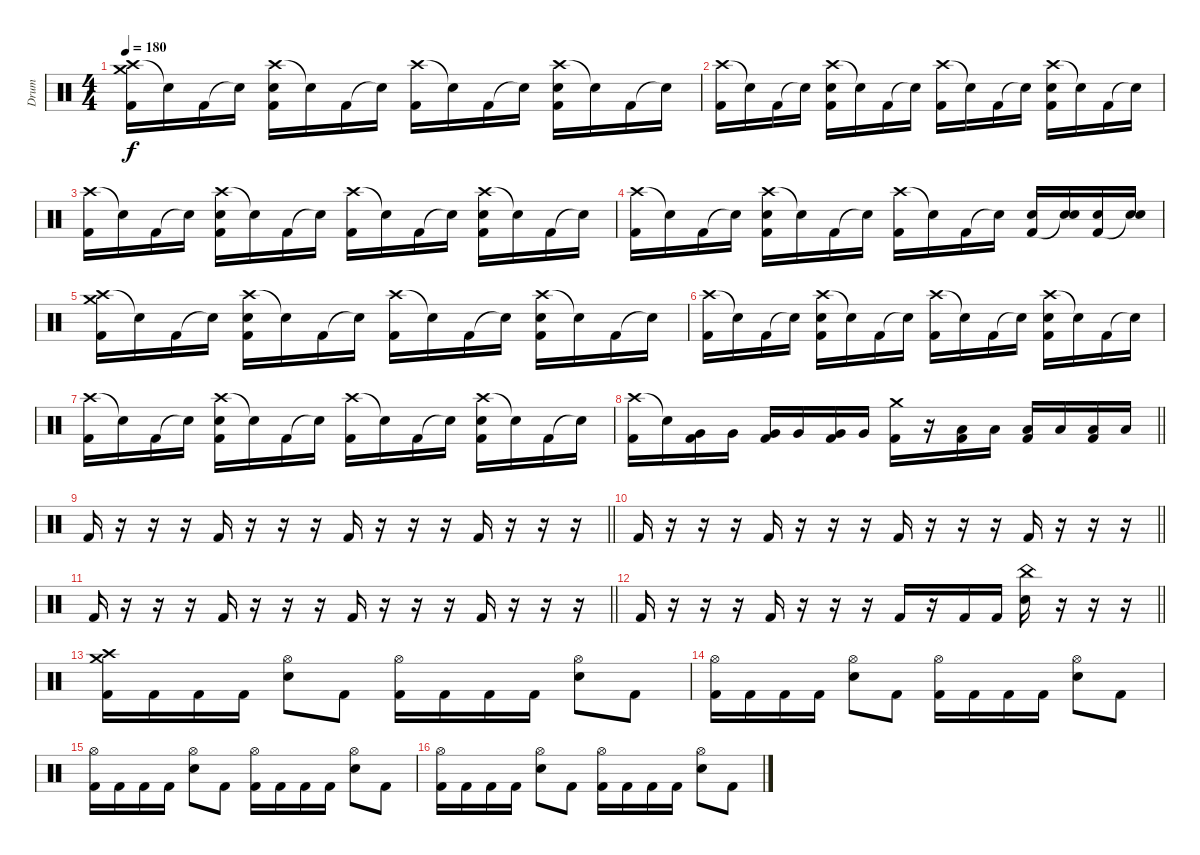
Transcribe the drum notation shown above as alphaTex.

\track ("Drum" "Drum") {instrument percussion}
\staff {score}
\articulation defaults
\ts (4 4)
\tempo 180
\clef neutral
\ks c
("Crash high (hit)" "Crash medium (hit)" "Kick (hit) 2").16{dy f} "Snare (hit)"{t}.16 "Kick (hit) 2".16 "Snare (hit)"{t}.16 ("Crash high (hit)" "Snare (hit) 2" "Kick (hit) 2").16 "Snare (hit)"{t}.16 "Kick (hit) 2".16 "Snare (hit)"{t}.16 ("Crash high (hit)" "Kick (hit) 2").16 "Snare (hit)"{t}.16 "Kick (hit) 2".16 "Snare (hit)"{t}.16 ("Crash high (hit)" "Snare (hit) 2" "Kick (hit) 2").16 "Snare (hit)"{t}.16 "Kick (hit) 2".16 "Snare (hit)"{t}.16 |
("Crash high (hit)" "Kick (hit) 2").16 "Snare (hit)"{t}.16 "Kick (hit) 2".16 "Snare (hit)"{t}.16 ("Crash high (hit)" "Snare (hit) 2" "Kick (hit) 2").16 "Snare (hit)"{t}.16 "Kick (hit) 2".16 "Snare (hit)"{t}.16 ("Crash high (hit)" "Kick (hit) 2").16 "Snare (hit)"{t}.16 "Kick (hit) 2".16 "Snare (hit)"{t}.16 ("Crash high (hit)" "Snare (hit) 2" "Kick (hit) 2").16 "Snare (hit)"{t}.16 "Kick (hit) 2".16 "Snare (hit)"{t}.16 |
("Crash high (hit)" "Kick (hit) 2").16 "Snare (hit)"{t}.16 "Kick (hit) 2".16 "Snare (hit)"{t}.16 ("Crash high (hit)" "Snare (hit) 2" "Kick (hit) 2").16 "Snare (hit)"{t}.16 "Kick (hit) 2".16 "Snare (hit)"{t}.16 ("Crash high (hit)" "Kick (hit) 2").16 "Snare (hit)"{t}.16 "Kick (hit) 2".16 "Snare (hit)"{t}.16 ("Crash high (hit)" "Snare (hit) 2" "Kick (hit) 2").16 "Snare (hit)"{t}.16 "Kick (hit) 2".16 "Snare (hit)"{t}.16 |
("Crash high (hit)" "Kick (hit) 2").16 "Snare (hit)"{t}.16 "Kick (hit) 2".16 "Snare (hit)"{t}.16 ("Crash high (hit)" "Snare (hit) 2" "Kick (hit) 2").16 "Snare (hit)"{t}.16 "Kick (hit) 2".16 "Snare (hit)"{t}.16 ("Crash high (hit)" "Kick (hit) 2").16 "Snare (hit)"{t}.16 "Kick (hit) 2".16 "Snare (hit)"{t}.16 ("Snare (hit) 2" "Kick (hit) 2").16 ("Snare (hit) 2" "Snare (hit)"{t}).16 ("Snare (hit) 2" "Kick (hit) 2").16 ("Snare (hit) 2" "Snare (hit)"{t}).16 |
("Crash high (hit)" "Crash medium (hit)" "Kick (hit) 2").16 "Snare (hit)"{t}.16 "Kick (hit) 2".16 "Snare (hit)"{t}.16 ("Crash high (hit)" "Snare (hit) 2" "Kick (hit) 2").16 "Snare (hit)"{t}.16 "Kick (hit) 2".16 "Snare (hit)"{t}.16 ("Crash high (hit)" "Kick (hit) 2").16 "Snare (hit)"{t}.16 "Kick (hit) 2".16 "Snare (hit)"{t}.16 ("Crash high (hit)" "Snare (hit) 2" "Kick (hit) 2").16 "Snare (hit)"{t}.16 "Kick (hit) 2".16 "Snare (hit)"{t}.16 |
("Crash high (hit)" "Kick (hit) 2").16 "Snare (hit)"{t}.16 "Kick (hit) 2".16 "Snare (hit)"{t}.16 ("Crash high (hit)" "Snare (hit) 2" "Kick (hit) 2").16 "Snare (hit)"{t}.16 "Kick (hit) 2".16 "Snare (hit)"{t}.16 ("Crash high (hit)" "Kick (hit) 2").16 "Snare (hit)"{t}.16 "Kick (hit) 2".16 "Snare (hit)"{t}.16 ("Crash high (hit)" "Snare (hit) 2" "Kick (hit) 2").16 "Snare (hit)"{t}.16 "Kick (hit) 2".16 "Snare (hit)"{t}.16 |
("Crash high (hit)" "Kick (hit) 2").16 "Snare (hit)"{t}.16 "Kick (hit) 2".16 "Snare (hit)"{t}.16 ("Crash high (hit)" "Snare (hit) 2" "Kick (hit) 2").16 "Snare (hit)"{t}.16 "Kick (hit) 2".16 "Snare (hit)"{t}.16 ("Crash high (hit)" "Kick (hit) 2").16 "Snare (hit)"{t}.16 "Kick (hit) 2".16 "Snare (hit)"{t}.16 ("Crash high (hit)" "Snare (hit) 2" "Kick (hit) 2").16 "Snare (hit)"{t}.16 "Kick (hit) 2".16 "Snare (hit)"{t}.16 |
\barLineRight lightlight
("Crash high (hit)" "Kick (hit) 2").16 "Snare (hit)"{t}.16 ("Very Low Tom (hit)" "Kick (hit) 2").16 "Very Low Tom (hit)".16 ("Very Low Tom (hit)" "Kick (hit) 2").16 "Very Low Tom (hit)".16 ("Very Low Tom (hit)" "Kick (hit) 2").16 "Very Low Tom (hit)".16 ("Crash medium (hit)" "Kick (hit) 2").16 r.16 ("Low Floor Tom (hit)" "Kick (hit) 2").16 "Low Floor Tom (hit)".16 ("Low Floor Tom (hit)" "Kick (hit) 2").16 "Low Floor Tom (hit)".16 ("Low Floor Tom (hit)" "Kick (hit) 2").16 "Low Floor Tom (hit)".16 |
\barLineRight lightlight "Kick (hit) 2".16
r.16 r.16 r.16 "Kick (hit) 2".16 r.16 r.16 r.16 "Kick (hit) 2".16 r.16 r.16 r.16 "Kick (hit) 2".16 r.16 r.16 r.16 |
\barLineRight lightlight "Kick (hit) 2".16
r.16 r.16 r.16 "Kick (hit) 2".16 r.16 r.16 r.16 "Kick (hit) 2".16 r.16 r.16 r.16 "Kick (hit) 2".16 r.16 r.16 r.16 |
\barLineRight lightlight "Kick (hit) 2".16
r.16 r.16 r.16 "Kick (hit) 2".16 r.16 r.16 r.16 "Kick (hit) 2".16 r.16 r.16 r.16 "Kick (hit) 2".16 r.16 r.16 r.16 |
\barLineRight lightlight "Kick (hit) 2".16
r.16 r.16 r.16 "Kick (hit) 2".16 r.16 r.16 r.16 "Kick (hit) 2".16 r.16 "Kick (hit) 2".16 "Kick (hit) 2".16 ("China (hit)" "Snare (hit) 2").16 r.16 r.16 r.16 |
\section ("" "")
("Crash high (hit)" "Crash medium (hit)" "Kick (hit) 2").16 "Kick (hit) 2".16 "Kick (hit) 2".16 "Kick (hit) 2".16 ("Hi-Hat (open)" "Snare (hit) 2").8 "Kick (hit) 2".8 ("Hi-Hat (open)" "Kick (hit) 2").16 "Kick (hit) 2".16 "Kick (hit) 2".16 "Kick (hit) 2".16 ("Hi-Hat (open)" "Snare (hit) 2").8 "Kick (hit) 2".8 |
("Hi-Hat (open)" "Kick (hit) 2").16 "Kick (hit) 2".16 "Kick (hit) 2".16 "Kick (hit) 2".16 ("Hi-Hat (open)" "Snare (hit) 2").8 "Kick (hit) 2".8 ("Hi-Hat (open)" "Kick (hit) 2").16 "Kick (hit) 2".16 "Kick (hit) 2".16 "Kick (hit) 2".16 ("Hi-Hat (open)" "Snare (hit) 2").8 "Kick (hit) 2".8 |
("Hi-Hat (open)" "Kick (hit) 2").16 "Kick (hit) 2".16 "Kick (hit) 2".16 "Kick (hit) 2".16 ("Hi-Hat (open)" "Snare (hit) 2").8 "Kick (hit) 2".8 ("Hi-Hat (open)" "Kick (hit) 2").16 "Kick (hit) 2".16 "Kick (hit) 2".16 "Kick (hit) 2".16 ("Hi-Hat (open)" "Snare (hit) 2").8 "Kick (hit) 2".8 |
("Hi-Hat (open)" "Kick (hit) 2").16 "Kick (hit) 2".16 "Kick (hit) 2".16 "Kick (hit) 2".16 ("Hi-Hat (open)" "Snare (hit) 2").8 "Kick (hit) 2".8 ("Hi-Hat (open)" "Kick (hit) 2").16 "Kick (hit) 2".16 "Kick (hit) 2".16 "Kick (hit) 2".16 ("Hi-Hat (open)" "Snare (hit) 2").8 "Kick (hit) 2".8
